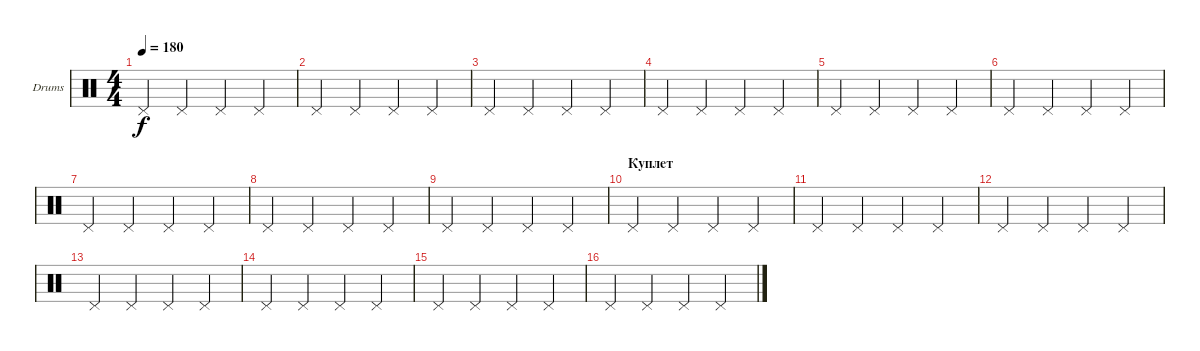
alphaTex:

\defaultSystemsLayout 4
\bracketExtendMode groupsimilarinstruments
\firstSystemTrackNameOrientation horizontal
\otherSystemsTrackNameOrientation horizontal
\track ("Drumkit" "Drums") {instrument percussion}
\staff {score}
\articulation defaults
\ts (4 4)
\tempo 180
\clef neutral
\ks c "Pedal Hi-Hat (hit)".4{dy f} "Pedal Hi-Hat (hit)".4 "Pedal Hi-Hat (hit)".4 "Pedal Hi-Hat (hit)".4
|
"Pedal Hi-Hat (hit)".4 "Pedal Hi-Hat (hit)".4 "Pedal Hi-Hat (hit)".4 "Pedal Hi-Hat (hit)".4 |
"Pedal Hi-Hat (hit)".4 "Pedal Hi-Hat (hit)".4 "Pedal Hi-Hat (hit)".4 "Pedal Hi-Hat (hit)".4 |
"Pedal Hi-Hat (hit)".4 "Pedal Hi-Hat (hit)".4 "Pedal Hi-Hat (hit)".4 "Pedal Hi-Hat (hit)".4 |
"Pedal Hi-Hat (hit)".4 "Pedal Hi-Hat (hit)".4 "Pedal Hi-Hat (hit)".4 "Pedal Hi-Hat (hit)".4 |
"Pedal Hi-Hat (hit)".4 "Pedal Hi-Hat (hit)".4 "Pedal Hi-Hat (hit)".4 "Pedal Hi-Hat (hit)".4 |
"Pedal Hi-Hat (hit)".4 "Pedal Hi-Hat (hit)".4 "Pedal Hi-Hat (hit)".4 "Pedal Hi-Hat (hit)".4 |
"Pedal Hi-Hat (hit)".4 "Pedal Hi-Hat (hit)".4 "Pedal Hi-Hat (hit)".4 "Pedal Hi-Hat (hit)".4 |
"Pedal Hi-Hat (hit)".4 "Pedal Hi-Hat (hit)".4 "Pedal Hi-Hat (hit)".4 "Pedal Hi-Hat (hit)".4 |
\section ("" "Куплет")
"Pedal Hi-Hat (hit)".4 "Pedal Hi-Hat (hit)".4 "Pedal Hi-Hat (hit)".4 "Pedal Hi-Hat (hit)".4 |
"Pedal Hi-Hat (hit)".4 "Pedal Hi-Hat (hit)".4 "Pedal Hi-Hat (hit)".4 "Pedal Hi-Hat (hit)".4 |
"Pedal Hi-Hat (hit)".4 "Pedal Hi-Hat (hit)".4 "Pedal Hi-Hat (hit)".4 "Pedal Hi-Hat (hit)".4 |
"Pedal Hi-Hat (hit)".4 "Pedal Hi-Hat (hit)".4 "Pedal Hi-Hat (hit)".4 "Pedal Hi-Hat (hit)".4 |
"Pedal Hi-Hat (hit)".4 "Pedal Hi-Hat (hit)".4 "Pedal Hi-Hat (hit)".4 "Pedal Hi-Hat (hit)".4 |
"Pedal Hi-Hat (hit)".4 "Pedal Hi-Hat (hit)".4 "Pedal Hi-Hat (hit)".4 "Pedal Hi-Hat (hit)".4 |
"Pedal Hi-Hat (hit)".4 "Pedal Hi-Hat (hit)".4 "Pedal Hi-Hat (hit)".4 "Pedal Hi-Hat (hit)".4
